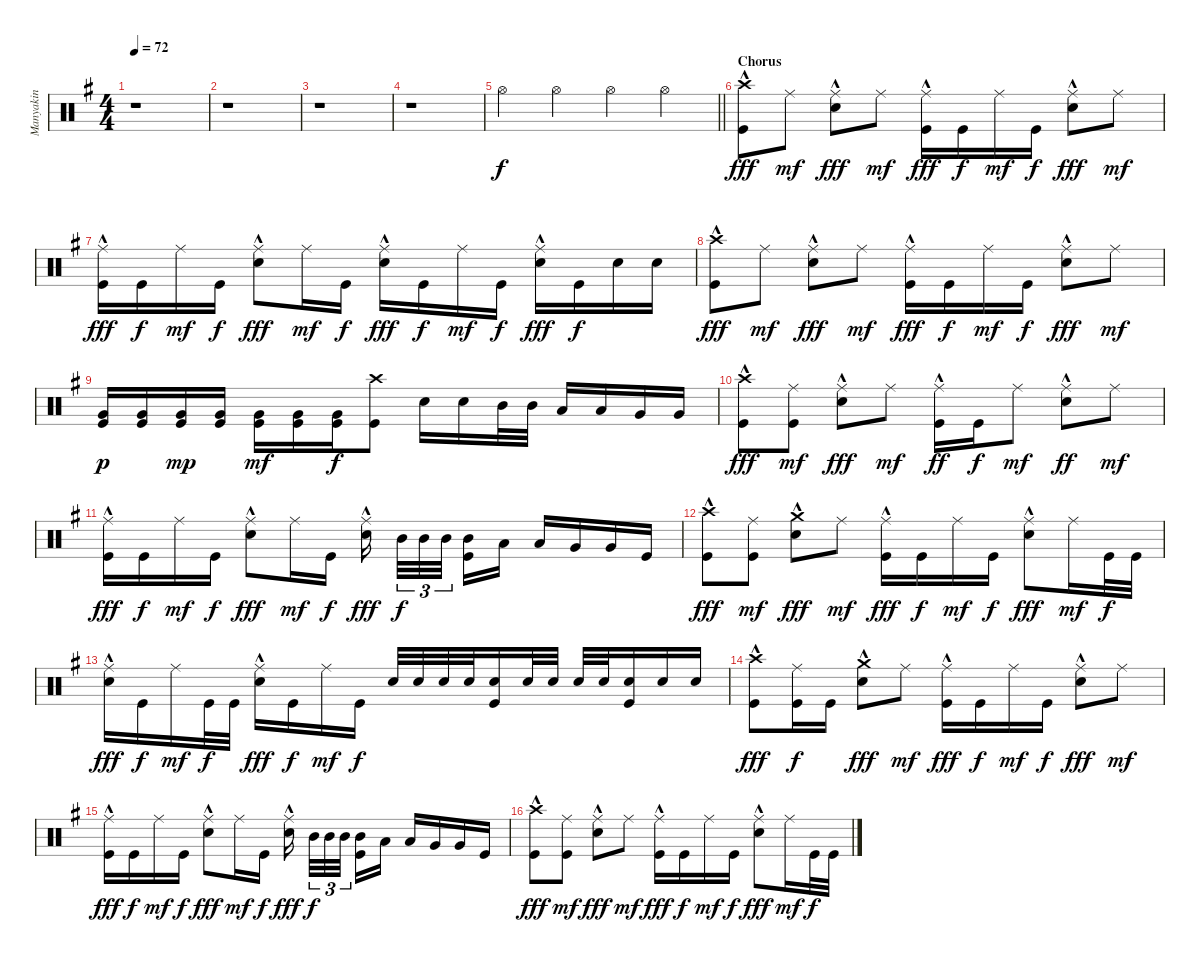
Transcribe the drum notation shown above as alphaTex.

\track ("Manyakin" "Manyakin") {instrument percussion}
\staff {score}
\articulation defaults
\ts (4 4)
\tempo 72
\clef neutral
\ks eminor
r.1{dy f} |
r.1 |
r.1 |
r.1 |
\barLineRight lightlight "Hi-Hat (open)".4{lyrics (0 "") lyrics (1 "") lyrics (2 "") lyrics (3 "") lyrics (4 "") beam Down} "Hi-Hat (open)".4{beam Down} "Hi-Hat (open)".4{beam Down} "Hi-Hat (open)".4{beam Down}
|
\section ("" "Chorus")
("Crash high (hit)"{hac} "Kick (hit)").8{dy fff beam Down} "Ride (middle)".8{dy mf beam Down} ("Ride (middle)"{hac} "Snare (hit) 2").8{dy fff beam Down} "Ride (middle)".8{dy mf beam Down} ("Ride (middle)"{hac} "Kick (hit)").16{dy fff beam Down} "Kick (hit)".16{dy f beam Down} "Ride (middle)".16{dy mf beam Down} "Kick (hit)".16{dy f beam Down} ("Ride (middle)"{hac} "Snare (hit) 2").8{dy fff beam Down} "Ride (middle)".8{dy mf beam Down} |
("Ride (middle)"{hac} "Kick (hit)").16{dy fff beam Down} "Kick (hit)".16{dy f beam Down} "Ride (middle)".16{dy mf beam Down} "Kick (hit)".16{dy f beam Down} ("Ride (middle)"{hac} "Snare (hit) 2").8{dy fff beam Down} "Ride (middle)".16{dy mf beam Down} "Kick (hit)".16{dy f beam Down} ("Ride (middle)"{hac} "Snare (hit) 2").16{dy fff beam Down} "Kick (hit)".16{dy f beam Down} "Ride (middle)".16{dy mf beam Down} "Kick (hit)".16{dy f beam Down} ("Ride (middle)"{hac} "Snare (hit) 2").16{dy fff beam Down} "Kick (hit)".16{dy f beam Down} "Snare (hit) 2".16{beam Down} "Snare (hit) 2".16{beam Down} |
("Crash high (hit)"{hac} "Kick (hit)").8{dy fff beam Down} "Ride (middle)".8{dy mf beam Down} ("Ride (middle)"{hac} "Snare (hit) 2").8{dy fff beam Down} "Ride (middle)".8{dy mf beam Down} ("Ride (middle)"{hac} "Kick (hit)").16{dy fff beam Down} "Kick (hit)".16{dy f beam Down} "Ride (middle)".16{dy mf beam Down} "Kick (hit)".16{dy f beam Down} ("Ride (middle)"{hac} "Snare (hit) 2").8{dy fff beam Down} "Ride (middle)".8{dy mf beam Down} |
("Very Low Tom (hit)" "Kick (hit)").16{dy p beam Up} ("Very Low Tom (hit)" "Kick (hit)").16{beam Up} ("Very Low Tom (hit)" "Kick (hit)").16{dy mp beam Up} ("Very Low Tom (hit)" "Kick (hit)").16{beam Up} ("Very Low Tom (hit)" "Kick (hit)").16{dy mf beam Down} ("Very Low Tom (hit)" "Kick (hit)").16{beam Down} ("Very Low Tom (hit)" "Kick (hit)").16{dy f beam Down} ("Crash high (hit)" "Kick (hit)").8{beam Down} "Snare (hit) 2".16{beam Down} "Snare (hit) 2".16{beam Down} "Mid Tom (hit)".32{beam Down} "Mid Tom (hit)".32{beam Down} "Low Tom (hit)".16{beam Up} "Low Tom (hit)".16{beam Up} "Very Low Tom (hit)".16{beam Up} "Very Low Tom (hit)".16{beam Up} |
("Crash high (hit)"{hac} "Kick (hit)").8{dy fff beam Down} ("Ride (middle)" "Kick (hit)").8{dy mf beam Down} ("Ride (middle)"{hac} "Snare (hit) 2").8{dy fff beam Down} "Ride (middle)".8{dy mf beam Down} ("Ride (middle)"{hac} "Kick (hit)").16{dy ff beam Down} "Kick (hit)".16{dy f beam Down} "Ride (middle)".8{dy mf beam Down} ("Ride (middle)"{hac} "Snare (hit) 2").8{dy ff beam Down} "Ride (middle)".8{dy mf beam Down} |
("Ride (middle)"{hac} "Kick (hit)").16{dy fff beam Down} "Kick (hit)".16{dy f beam Down} "Ride (middle)".16{dy mf beam Down} "Kick (hit)".16{dy f beam Down} ("Ride (middle)"{hac} "Snare (hit) 2").8{dy fff beam Down} "Ride (middle)".16{dy mf beam Down} "Kick (hit)".16{dy f beam Down} ("Ride (middle)"{hac} "Snare (hit) 2").16{dy fff beam Down beam splitsecondary} "Mid Tom (hit)".32{tu (3 2) dy f beam Down} "Mid Tom (hit)".32{tu (3 2) beam Down} "Mid Tom (hit)".32{tu (3 2) beam Down beam splitsecondary} ("Mid Tom (hit)" "Kick (hit)").16{beam Down} "Low Tom (hit)".16{beam Down} "Low Tom (hit)".16{beam Up} "Very Low Tom (hit)".16{beam Up} "Very Low Tom (hit)".16{beam Up} "Kick (hit)".16{beam Up} |
("Crash high (hit)"{hac} "Kick (hit)").8{dy fff beam Down} ("Ride (middle)" "Kick (hit)").8{dy mf beam Down} ("Crash medium (hit)"{hac} "Snare (hit) 2").8{dy fff beam Down} "Ride (middle)".8{dy mf beam Down} ("Ride (middle)"{hac} "Kick (hit)").16{dy fff beam Down} "Kick (hit)".16{dy f beam Down} "Ride (middle)".16{dy mf beam Down} "Kick (hit)".16{dy f beam Down} ("Ride (middle)"{hac} "Snare (hit) 2").8{dy fff beam Down} "Ride (middle)".16{dy mf beam Down} "Kick (hit)".32{dy f beam Down} "Kick (hit)".32{beam Down} |
("Ride (middle)"{hac} "Snare (hit) 2").16{dy fff beam Down} "Kick (hit)".16{dy f beam Down} "Ride (middle)".16{dy mf beam Down} "Kick (hit)".32{dy f beam Down} "Kick (hit)".32{beam Down} ("Ride (middle)"{hac} "Snare (hit) 2").16{dy fff beam Down} "Kick (hit)".16{dy f beam Down} "Ride (middle)".16{dy mf beam Down} "Kick (hit)".16{dy f beam Down} "Snare (hit) 2".32{beam Up} "Snare (hit) 2".32{beam Up} "Snare (hit) 2".32{beam Up} "Snare (hit) 2".32{beam Up} ("Snare (hit) 2" "Kick (hit)").16{beam Up} "Snare (hit) 2".32{beam Up} "Snare (hit) 2".32{beam Up} "Snare (hit) 2".32{beam Up} "Snare (hit) 2".32{beam Up} ("Snare (hit) 2" "Kick (hit)").16{beam Up} "Snare (hit) 2".16{beam Up} "Snare (hit) 2".16{beam Up} |
("Crash high (hit)"{hac} "Kick (hit)").8{dy fff beam Down} ("Ride (middle)" "Kick (hit)").16{dy f beam Down} "Kick (hit)".16{beam Down} ("Crash medium (hit)"{hac} "Snare (hit) 2").8{dy fff beam Down} "Ride (middle)".8{dy mf beam Down} ("Ride (middle)"{hac} "Kick (hit)").16{dy fff beam Down} "Kick (hit)".16{dy f beam Down} "Ride (middle)".16{dy mf beam Down} "Kick (hit)".16{dy f beam Down} ("Ride (middle)"{hac} "Snare (hit) 2").8{dy fff beam Down} "Ride (middle)".8{dy mf beam Down} |
("Ride (middle)"{hac} "Kick (hit)").16{dy fff beam Down} "Kick (hit)".16{dy f beam Down} "Ride (middle)".16{dy mf beam Down} "Kick (hit)".16{dy f beam Down} ("Ride (middle)"{hac} "Snare (hit) 2").8{dy fff beam Down} "Ride (middle)".16{dy mf beam Down} "Kick (hit)".16{dy f beam Down} ("Ride (middle)"{hac} "Snare (hit) 2").16{dy fff beam Down beam splitsecondary} "Mid Tom (hit)".32{tu (3 2) dy f beam Down} "Mid Tom (hit)".32{tu (3 2) beam Down} "Mid Tom (hit)".32{tu (3 2) beam Down beam splitsecondary} ("Mid Tom (hit)" "Kick (hit)").16{beam Down} "Low Tom (hit)".16{beam Down} "Low Tom (hit)".16{beam Up} "Very Low Tom (hit)".16{beam Up} "Very Low Tom (hit)".16{beam Up} "Kick (hit)".16{beam Up} |
("Crash high (hit)"{hac} "Kick (hit)").8{dy fff beam Down} ("Ride (middle)" "Kick (hit)").8{dy mf beam Down} ("Ride (middle)"{hac} "Snare (hit) 2").8{dy fff beam Down} "Ride (middle)".8{dy mf beam Down} ("Ride (middle)"{hac} "Kick (hit)").16{dy fff beam Down} "Kick (hit)".16{dy f beam Down} "Ride (middle)".16{dy mf beam Down} "Kick (hit)".16{dy f beam Down} ("Ride (middle)"{hac} "Snare (hit) 2").8{dy fff beam Down} "Ride (middle)".16{dy mf beam Down} "Kick (hit)".32{dy f beam Down} "Kick (hit)".32{beam Down}
